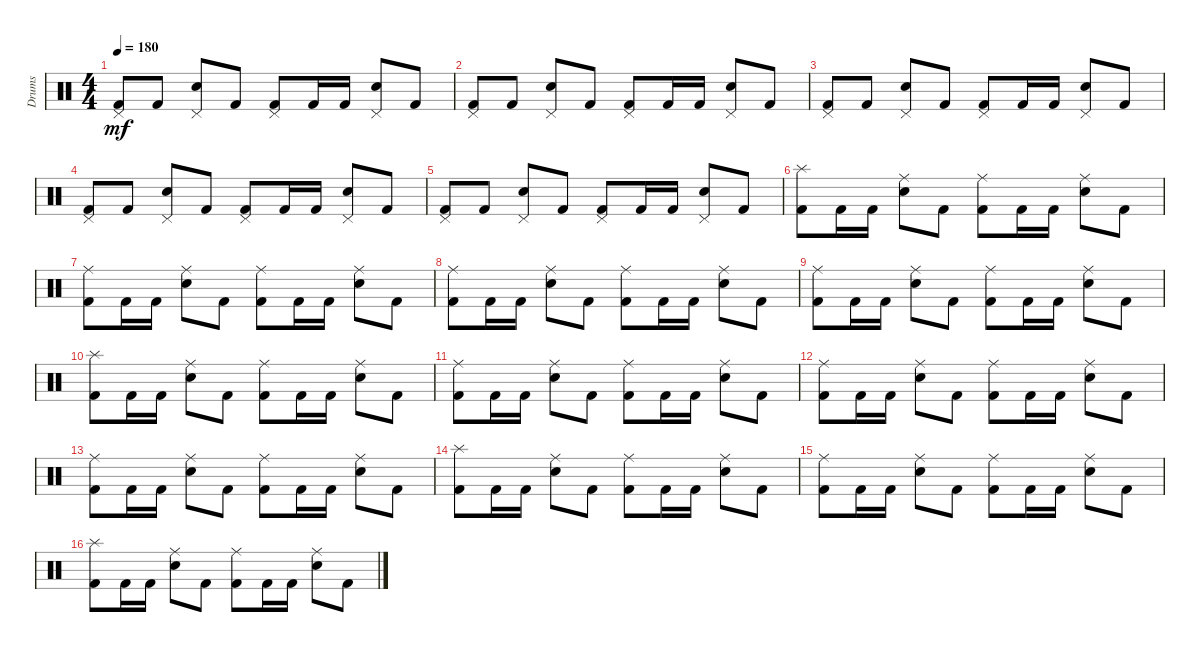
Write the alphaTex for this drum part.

\track ("Drums" "Drums") {instrument percussion}
\staff {score}
\articulation defaults
\ts (4 4)
\tempo 180
\clef neutral
\ks c
("Pedal Hi-Hat (hit)" "Kick (hit) 2").8{dy mf} "Kick (hit) 2".8 ("Pedal Hi-Hat (hit)" "Snare (hit) 2").8 "Kick (hit) 2".8 ("Pedal Hi-Hat (hit)" "Kick (hit) 2").8 "Kick (hit) 2".16 "Kick (hit) 2".16 ("Pedal Hi-Hat (hit)" "Snare (hit) 2").8 "Kick (hit) 2".8 |
("Pedal Hi-Hat (hit)" "Kick (hit) 2").8 "Kick (hit) 2".8 ("Pedal Hi-Hat (hit)" "Snare (hit) 2").8 "Kick (hit) 2".8 ("Pedal Hi-Hat (hit)" "Kick (hit) 2").8 "Kick (hit) 2".16 "Kick (hit) 2".16 ("Pedal Hi-Hat (hit)" "Snare (hit) 2").8 "Kick (hit) 2".8 |
("Pedal Hi-Hat (hit)" "Kick (hit) 2").8 "Kick (hit) 2".8 ("Pedal Hi-Hat (hit)" "Snare (hit) 2").8 "Kick (hit) 2".8 ("Pedal Hi-Hat (hit)" "Kick (hit) 2").8 "Kick (hit) 2".16 "Kick (hit) 2".16 ("Pedal Hi-Hat (hit)" "Snare (hit) 2").8 "Kick (hit) 2".8 |
("Pedal Hi-Hat (hit)" "Kick (hit) 2").8 "Kick (hit) 2".8 ("Pedal Hi-Hat (hit)" "Snare (hit) 2").8 "Kick (hit) 2".8 ("Pedal Hi-Hat (hit)" "Kick (hit) 2").8 "Kick (hit) 2".16 "Kick (hit) 2".16 ("Pedal Hi-Hat (hit)" "Snare (hit) 2").8 "Kick (hit) 2".8 |
("Pedal Hi-Hat (hit)" "Kick (hit) 2").8 "Kick (hit) 2".8 ("Pedal Hi-Hat (hit)" "Snare (hit) 2").8 "Kick (hit) 2".8 ("Pedal Hi-Hat (hit)" "Kick (hit) 2").8 "Kick (hit) 2".16 "Kick (hit) 2".16 ("Pedal Hi-Hat (hit)" "Snare (hit) 2").8 "Kick (hit) 2".8 |
("Splash (hit)" "Kick (hit) 2").8 "Kick (hit) 2".16 "Kick (hit) 2".16 ("Ride (middle)" "Snare (hit) 2").8 "Kick (hit) 2".8 ("Ride (middle)" "Kick (hit) 2").8 "Kick (hit) 2".16 "Kick (hit) 2".16 ("Ride (middle)" "Snare (hit) 2").8 "Kick (hit) 2".8 |
("Ride (middle)" "Kick (hit) 2").8 "Kick (hit) 2".16 "Kick (hit) 2".16 ("Ride (middle)" "Snare (hit) 2").8 "Kick (hit) 2".8 ("Ride (middle)" "Kick (hit) 2").8 "Kick (hit) 2".16 "Kick (hit) 2".16 ("Ride (middle)" "Snare (hit) 2").8 "Kick (hit) 2".8 |
("Ride (middle)" "Kick (hit) 2").8 "Kick (hit) 2".16 "Kick (hit) 2".16 ("Ride (middle)" "Snare (hit) 2").8 "Kick (hit) 2".8 ("Ride (middle)" "Kick (hit) 2").8 "Kick (hit) 2".16 "Kick (hit) 2".16 ("Ride (middle)" "Snare (hit) 2").8 "Kick (hit) 2".8 |
("Ride (middle)" "Kick (hit) 2").8 "Kick (hit) 2".16 "Kick (hit) 2".16 ("Ride (middle)" "Snare (hit) 2").8 "Kick (hit) 2".8 ("Ride (middle)" "Kick (hit) 2").8 "Kick (hit) 2".16 "Kick (hit) 2".16 ("Ride (middle)" "Snare (hit) 2").8 "Kick (hit) 2".8 |
("Splash (hit)" "Kick (hit) 2").8 "Kick (hit) 2".16 "Kick (hit) 2".16 ("Ride (middle)" "Snare (hit) 2").8 "Kick (hit) 2".8 ("Ride (middle)" "Kick (hit) 2").8 "Kick (hit) 2".16 "Kick (hit) 2".16 ("Ride (middle)" "Snare (hit) 2").8 "Kick (hit) 2".8 |
("Ride (middle)" "Kick (hit) 2").8 "Kick (hit) 2".16 "Kick (hit) 2".16 ("Ride (middle)" "Snare (hit) 2").8 "Kick (hit) 2".8 ("Ride (middle)" "Kick (hit) 2").8 "Kick (hit) 2".16 "Kick (hit) 2".16 ("Ride (middle)" "Snare (hit) 2").8 "Kick (hit) 2".8 |
("Ride (middle)" "Kick (hit) 2").8 "Kick (hit) 2".16 "Kick (hit) 2".16 ("Ride (middle)" "Snare (hit) 2").8 "Kick (hit) 2".8 ("Ride (middle)" "Kick (hit) 2").8 "Kick (hit) 2".16 "Kick (hit) 2".16 ("Ride (middle)" "Snare (hit) 2").8 "Kick (hit) 2".8 |
("Ride (middle)" "Kick (hit) 2").8 "Kick (hit) 2".16 "Kick (hit) 2".16 ("Ride (middle)" "Snare (hit) 2").8 "Kick (hit) 2".8 ("Ride (middle)" "Kick (hit) 2").8 "Kick (hit) 2".16 "Kick (hit) 2".16 ("Ride (middle)" "Snare (hit) 2").8 "Kick (hit) 2".8 |
("Splash (hit)" "Kick (hit) 2").8 "Kick (hit) 2".16 "Kick (hit) 2".16 ("Ride (middle)" "Snare (hit) 2").8 "Kick (hit) 2".8 ("Ride (middle)" "Kick (hit) 2").8 "Kick (hit) 2".16 "Kick (hit) 2".16 ("Ride (middle)" "Snare (hit) 2").8 "Kick (hit) 2".8 |
("Ride (middle)" "Kick (hit) 2").8 "Kick (hit) 2".16 "Kick (hit) 2".16 ("Ride (middle)" "Snare (hit) 2").8 "Kick (hit) 2".8 ("Ride (middle)" "Kick (hit) 2").8 "Kick (hit) 2".16 "Kick (hit) 2".16 ("Ride (middle)" "Snare (hit) 2").8 "Kick (hit) 2".8 |
("Splash (hit)" "Kick (hit) 2").8 "Kick (hit) 2".16 "Kick (hit) 2".16 ("Ride (middle)" "Snare (hit) 2").8 "Kick (hit) 2".8 ("Ride (middle)" "Kick (hit) 2").8 "Kick (hit) 2".16 "Kick (hit) 2".16 ("Ride (middle)" "Snare (hit) 2").8 "Kick (hit) 2".8
